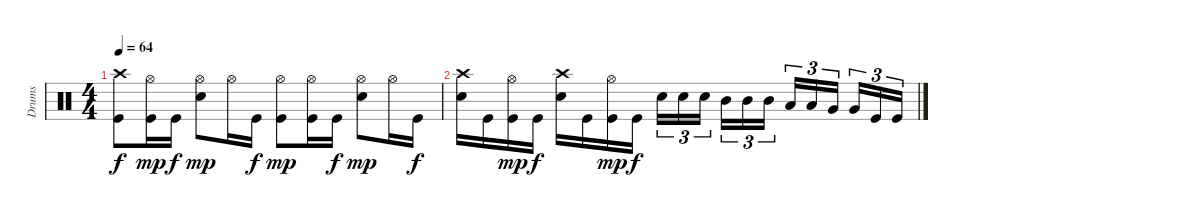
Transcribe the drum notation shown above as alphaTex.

\track ("Drums" "Drums") {instrument percussion}
\staff {score}
\articulation defaults
\ts (4 4)
\tempo 64
\clef neutral
\ks c
("Crash high (hit)" "Kick (hit)").8{dy f} ("Hi-Hat (open)" "Kick (hit)").16{dy mp} "Kick (hit)".16{dy f} ("Hi-Hat (open)" "Snare (hit) 2").8{dy mp} "Hi-Hat (open)".16 "Kick (hit)".16{dy f} ("Hi-Hat (open)" "Kick (hit)").8{dy mp} ("Hi-Hat (open)" "Kick (hit)").16 "Kick (hit)".16{dy f} ("Hi-Hat (open)" "Snare (hit) 2").8{dy mp} "Hi-Hat (open)".16 "Kick (hit)".16{dy f} |
("Crash high (hit)" "Snare (hit) 2").16 "Kick (hit)".16 ("Hi-Hat (open)" "Kick (hit)").16{dy mp} "Kick (hit)".16{dy f} ("Crash high (hit)" "Snare (hit) 2").16 "Kick (hit)".16 ("Hi-Hat (open)" "Kick (hit)").16{dy mp} "Kick (hit)".16{dy f} "Snare (hit) 2".16{tu (3 2)} "Snare (hit) 2".16{tu (3 2)} "Snare (hit) 2".16{tu (3 2)} "Mid Tom (hit)".16{tu (3 2)} "Mid Tom (hit)".16{tu (3 2)} "Mid Tom (hit)".16{tu (3 2)} "Low Tom (hit)".16{tu (3 2)} "Low Tom (hit)".16{tu (3 2)} "Very Low Tom (hit)".16{tu (3 2)} "Very Low Tom (hit)".16{tu (3 2)} "Kick (hit)".16{tu (3 2)} "Kick (hit)".16{tu (3 2)}
